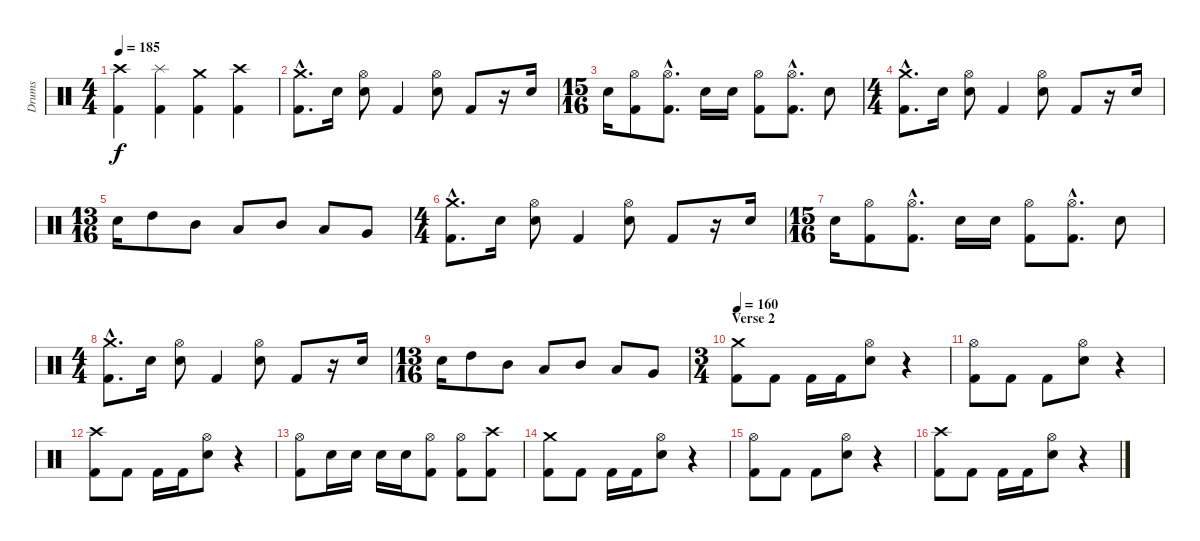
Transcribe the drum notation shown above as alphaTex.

\track ("Drums" "Drums") {instrument percussion}
\staff {score}
\articulation defaults
\ts (4 4)
\tempo 185
\clef neutral
\ks c
("Crash high (hit)" "Kick (hit) 2").4{dy f} ("Splash (hit)" "Kick (hit) 2").4 ("Crash medium (hit)" "Kick (hit) 2").4 ("Crash high (hit)" "Kick (hit) 2").4 |
("Crash medium (hit)"{hac} "Kick (hit) 2"{hac}).8{d} "Snare (hit) 2".16 ("Hi-Hat (open)" "Snare (hit) 2").8 "Kick (hit) 2".4 ("Hi-Hat (open)" "Snare (hit) 2").8 "Kick (hit) 2".8 r.16 "Snare (hit) 2".16 |
\ts (15 16)
"Snare (hit) 2".16 ("Hi-Hat (open)" "Kick (hit) 2").8 ("Hi-Hat (open)"{hac} "Kick (hit) 2"{hac}).8{d} "Snare (hit) 2".16 "Snare (hit) 2".16 ("Hi-Hat (open)" "Kick (hit) 2").8 ("Hi-Hat (open)"{hac} "Kick (hit) 2"{hac}).8{d} "Snare (hit) 2".8 |
\ts (4 4)
("Crash medium (hit)"{hac} "Kick (hit) 2"{hac}).8{d} "Snare (hit) 2".16 ("Hi-Hat (open)" "Snare (hit) 2").8 "Kick (hit) 2".4 ("Hi-Hat (open)" "Snare (hit) 2").8 "Kick (hit) 2".8 r.16 "Snare (hit) 2".16 |
\ts (13 16)
"Snare (hit) 2".16 "High Tom (hit)".8 "Mid Tom (hit)".8 "Low Tom (hit)".8 "Mid Tom (hit)".8 "Low Tom (hit)".8 "Very Low Tom (hit)".8 |
\ts (4 4)
("Crash medium (hit)"{hac} "Kick (hit) 2"{hac}).8{d} "Snare (hit) 2".16 ("Hi-Hat (open)" "Snare (hit) 2").8 "Kick (hit) 2".4 ("Hi-Hat (open)" "Snare (hit) 2").8 "Kick (hit) 2".8 r.16 "Snare (hit) 2".16 |
\ts (15 16)
"Snare (hit) 2".16 ("Hi-Hat (open)" "Kick (hit) 2").8 ("Hi-Hat (open)"{hac} "Kick (hit) 2"{hac}).8{d} "Snare (hit) 2".16 "Snare (hit) 2".16 ("Hi-Hat (open)" "Kick (hit) 2").8 ("Hi-Hat (open)"{hac} "Kick (hit) 2"{hac}).8{d} "Snare (hit) 2".8 |
\ts (4 4)
("Crash medium (hit)"{hac} "Kick (hit) 2"{hac}).8{d} "Snare (hit) 2".16 ("Hi-Hat (open)" "Snare (hit) 2").8 "Kick (hit) 2".4 ("Hi-Hat (open)" "Snare (hit) 2").8 "Kick (hit) 2".8 r.16 "Snare (hit) 2".16 |
\ts (13 16)
"Snare (hit) 2".16 "High Tom (hit)".8 "Mid Tom (hit)".8 "Low Tom (hit)".8 "Mid Tom (hit)".8 "Low Tom (hit)".8 "Very Low Tom (hit)".8 |
\ts (3 4)
\section ("" "Verse 2")
\tempo 160
("Crash medium (hit)" "Kick (hit) 2").8 "Kick (hit) 2".8 "Kick (hit) 2".16 "Kick (hit) 2".16 ("Hi-Hat (open)" "Snare (hit) 2").8 r.4 |
("Hi-Hat (open)" "Kick (hit) 2").8 "Kick (hit) 2".8 "Kick (hit) 2".8 ("Hi-Hat (open)" "Snare (hit) 2").8 r.4 |
("Crash high (hit)" "Kick (hit) 2").8 "Kick (hit) 2".8 "Kick (hit) 2".16 "Kick (hit) 2".16 ("Hi-Hat (open)" "Snare (hit) 2").8 r.4 |
("Hi-Hat (open)" "Kick (hit) 2").8 "Snare (hit) 2".16 "Snare (hit) 2".16 "Snare (hit) 2".16 "Snare (hit) 2".16 ("Hi-Hat (open)" "Kick (hit) 2").8 ("Hi-Hat (open)" "Kick (hit) 2").8 ("Crash high (hit)" "Kick (hit) 2").8 |
("Crash medium (hit)" "Kick (hit) 2").8 "Kick (hit) 2".8 "Kick (hit) 2".16 "Kick (hit) 2".16 ("Hi-Hat (open)" "Snare (hit) 2").8 r.4 |
("Hi-Hat (open)" "Kick (hit) 2").8 "Kick (hit) 2".8 "Kick (hit) 2".8 ("Hi-Hat (open)" "Snare (hit) 2").8 r.4 |
("Crash high (hit)" "Kick (hit) 2").8 "Kick (hit) 2".8 "Kick (hit) 2".16 "Kick (hit) 2".16 ("Hi-Hat (open)" "Snare (hit) 2").8 r.4
